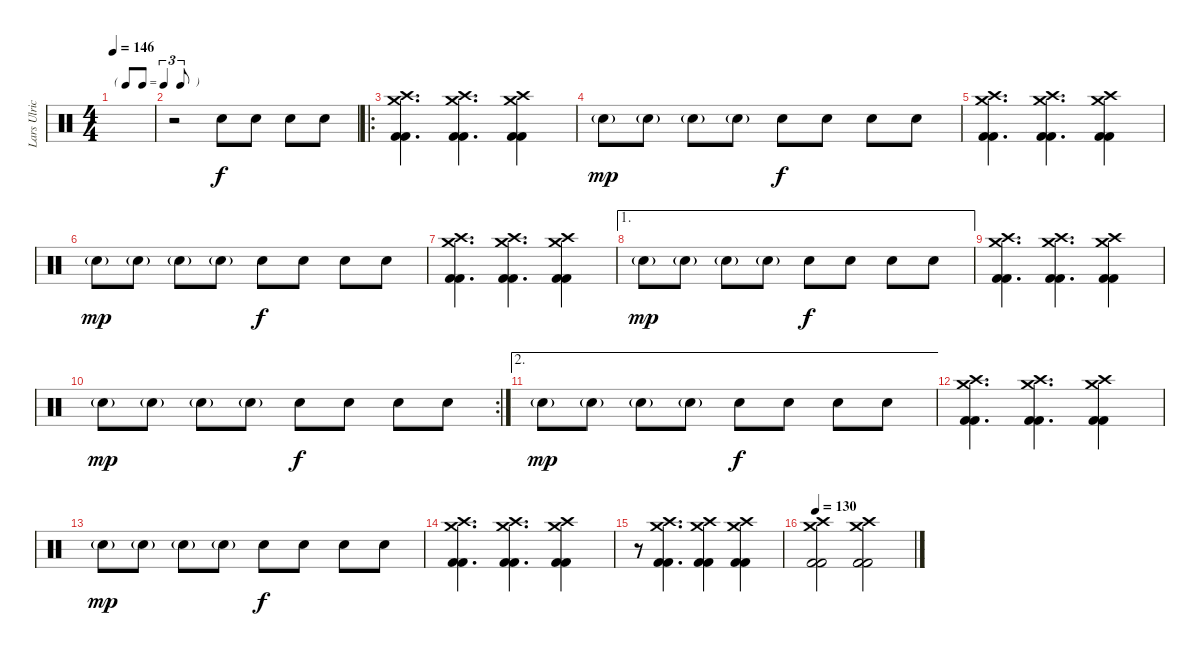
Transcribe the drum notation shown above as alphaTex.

\track ("Lars Ulrich" "Lars Ulric") {instrument percussion}
\staff {score}
\articulation defaults
\ts (4 4)
\tf triplet8th
\tempo 146
\clef neutral
\ks c
|
r.2 "Snare (hit) 2".8 "Snare (hit) 2".8 "Snare (hit) 2".8 "Snare (hit) 2".8 |
\ro
("Crash medium (hit)" "Crash high (hit)" "Kick (hit) 2" "Kick (hit) 2").4{d} ("Crash medium (hit)" "Crash high (hit)" "Kick (hit) 2" "Kick (hit) 2").4{d} ("Crash medium (hit)" "Crash high (hit)" "Kick (hit) 2" "Kick (hit) 2").4 |
"Snare (hit) 2"{g}.8{dy mp} "Snare (hit) 2"{g}.8 "Snare (hit) 2"{g}.8 "Snare (hit) 2"{g}.8 "Snare (hit) 2".8{dy f} "Snare (hit) 2".8 "Snare (hit) 2".8 "Snare (hit) 2".8 |
("Crash medium (hit)" "Crash high (hit)" "Kick (hit) 2" "Kick (hit) 2").4{d} ("Crash medium (hit)" "Crash high (hit)" "Kick (hit) 2" "Kick (hit) 2").4{d} ("Crash medium (hit)" "Crash high (hit)" "Kick (hit) 2" "Kick (hit) 2").4 |
"Snare (hit) 2"{g}.8{dy mp} "Snare (hit) 2"{g}.8 "Snare (hit) 2"{g}.8 "Snare (hit) 2"{g}.8 "Snare (hit) 2".8{dy f} "Snare (hit) 2".8 "Snare (hit) 2".8 "Snare (hit) 2".8 |
("Crash medium (hit)" "Crash high (hit)" "Kick (hit) 2" "Kick (hit) 2").4{d} ("Crash medium (hit)" "Crash high (hit)" "Kick (hit) 2" "Kick (hit) 2").4{d} ("Crash medium (hit)" "Crash high (hit)" "Kick (hit) 2" "Kick (hit) 2").4 |
\ae 1 "Snare (hit) 2"{g}.8{dy mp} "Snare (hit) 2"{g}.8 "Snare (hit) 2"{g}.8 "Snare (hit) 2"{g}.8 "Snare (hit) 2".8{dy f} "Snare (hit) 2".8 "Snare (hit) 2".8 "Snare (hit) 2".8
|
("Crash medium (hit)" "Crash high (hit)" "Kick (hit) 2" "Kick (hit) 2").4{d} ("Crash medium (hit)" "Crash high (hit)" "Kick (hit) 2" "Kick (hit) 2").4{d} ("Crash medium (hit)" "Crash high (hit)" "Kick (hit) 2" "Kick (hit) 2").4 |
\rc 2 "Snare (hit) 2"{g}.8{dy mp} "Snare (hit) 2"{g}.8 "Snare (hit) 2"{g}.8 "Snare (hit) 2"{g}.8 "Snare (hit) 2".8{dy f} "Snare (hit) 2".8 "Snare (hit) 2".8 "Snare (hit) 2".8
|
\ae 2 "Snare (hit) 2"{g}.8{dy mp} "Snare (hit) 2"{g}.8 "Snare (hit) 2"{g}.8 "Snare (hit) 2"{g}.8 "Snare (hit) 2".8{dy f} "Snare (hit) 2".8 "Snare (hit) 2".8 "Snare (hit) 2".8
|
("Crash medium (hit)" "Crash high (hit)" "Kick (hit) 2" "Kick (hit) 2").4{d} ("Crash medium (hit)" "Crash high (hit)" "Kick (hit) 2" "Kick (hit) 2").4{d} ("Crash medium (hit)" "Crash high (hit)" "Kick (hit) 2" "Kick (hit) 2").4 |
"Snare (hit) 2"{g}.8{dy mp} "Snare (hit) 2"{g}.8 "Snare (hit) 2"{g}.8 "Snare (hit) 2"{g}.8 "Snare (hit) 2".8{dy f} "Snare (hit) 2".8 "Snare (hit) 2".8 "Snare (hit) 2".8 |
("Crash medium (hit)" "Crash high (hit)" "Kick (hit) 2" "Kick (hit) 2").4{d} ("Crash medium (hit)" "Crash high (hit)" "Kick (hit) 2" "Kick (hit) 2").4{d} ("Crash medium (hit)" "Crash high (hit)" "Kick (hit) 2" "Kick (hit) 2").4 |
r.8 ("Crash medium (hit)" "Crash high (hit)" "Kick (hit) 2" "Kick (hit) 2").4{d} ("Crash medium (hit)" "Crash high (hit)" "Kick (hit) 2" "Kick (hit) 2").4 ("Crash medium (hit)" "Crash high (hit)" "Kick (hit) 2" "Kick (hit) 2").4 |
\tempo 130
("Crash medium (hit)" "Crash high (hit)" "Kick (hit) 2" "Kick (hit) 2").2 ("Crash medium (hit)" "Crash high (hit)" "Kick (hit) 2" "Kick (hit) 2").2
